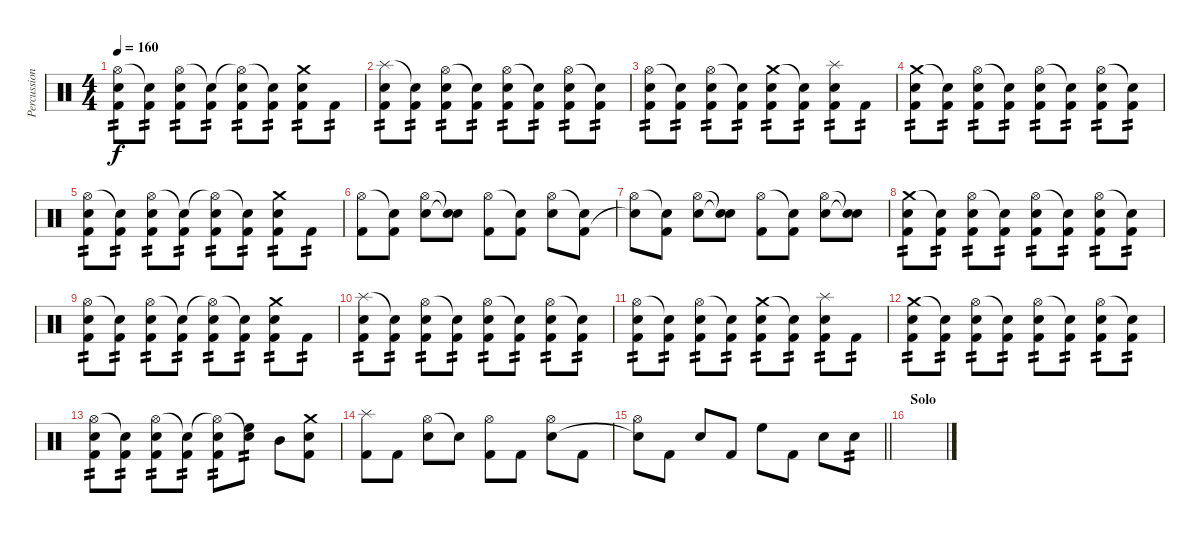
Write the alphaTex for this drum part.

\track ("Percussion" "Percussion") {instrument percussion}
\staff {score}
\articulation defaults
\ts (4 4)
\tempo 160
\clef neutral
\ks c
("Hi-Hat (open)" "Electric Snare (hit)" "Kick (hit) 2").8{tp 2 dy f} ("Snare (hit)"{t} "Kick (hit) 2").8{tp 2} ("Hi-Hat (open)" "Electric Snare (hit)" "Kick (hit) 2").8{tp 2} ("Snare (hit)"{t} "Kick (hit) 2").8{tp 2} ("Hi-Hat (open)"{t} "Electric Snare (hit)" "Kick (hit) 2").8{tp 2} ("Snare (hit)"{t} "Kick (hit) 2").8{tp 2} ("Crash medium (hit)" "Electric Snare (hit)" "Kick (hit) 2").8{tp 2} "Kick (hit) 2".8{tp 2} |
("Splash (hit)" "Electric Snare (hit)" "Kick (hit) 2").8{tp 2} ("Snare (hit)"{t} "Kick (hit) 2").8{tp 2} ("Hi-Hat (open)" "Electric Snare (hit)" "Kick (hit) 2").8{tp 2} ("Snare (hit)"{t} "Kick (hit) 2").8{tp 2} ("Hi-Hat (open)" "Electric Snare (hit)" "Kick (hit) 2").8{tp 2} ("Snare (hit)"{t} "Kick (hit) 2").8{tp 2} ("Hi-Hat (open)" "Electric Snare (hit)" "Kick (hit) 2").8{tp 2} ("Snare (hit)"{t} "Kick (hit) 2").8{tp 2} |
("Hi-Hat (open)" "Electric Snare (hit)" "Kick (hit) 2").8{tp 2} ("Snare (hit)"{t} "Kick (hit) 2").8{tp 2} ("Hi-Hat (open)" "Electric Snare (hit)" "Kick (hit) 2").8{tp 2} ("Snare (hit)"{t} "Kick (hit) 2").8{tp 2} ("Crash medium (hit)" "Electric Snare (hit)" "Kick (hit) 2").8{tp 2} ("Snare (hit)"{t} "Kick (hit) 2").8{tp 2} ("Splash (hit)" "Electric Snare (hit)" "Kick (hit) 2").8{tp 2} "Kick (hit) 2".8{tp 2} |
("Crash medium (hit)" "Electric Snare (hit)" "Kick (hit) 2").8{tp 2} ("Snare (hit)"{t} "Kick (hit) 2").8{tp 2} ("Hi-Hat (open)" "Electric Snare (hit)" "Kick (hit) 2").8{tp 2} ("Snare (hit)"{t} "Kick (hit) 2").8{tp 2} ("Hi-Hat (open)" "Electric Snare (hit)" "Kick (hit) 2").8{tp 2} ("Snare (hit)"{t} "Kick (hit) 2").8{tp 2} ("Hi-Hat (open)" "Electric Snare (hit)" "Kick (hit) 2").8{tp 2} ("Snare (hit)"{t} "Kick (hit) 2").8{tp 2} |
("Hi-Hat (open)" "Electric Snare (hit)" "Kick (hit) 2").8{tp 2} ("Snare (hit)"{t} "Kick (hit) 2").8{tp 2} ("Hi-Hat (open)" "Electric Snare (hit)" "Kick (hit) 2").8{tp 2} ("Snare (hit)"{t} "Kick (hit) 2").8{tp 2} ("Hi-Hat (open)"{t} "Electric Snare (hit)" "Kick (hit) 2").8{tp 2} ("Snare (hit)"{t} "Kick (hit) 2").8{tp 2} ("Crash medium (hit)" "Electric Snare (hit)" "Kick (hit) 2").8{tp 2} "Kick (hit) 2".8{tp 2} |
("Hi-Hat (open)" "Kick (hit) 2").8 ("Snare (hit)"{t} "Kick (hit) 2").8 ("Hi-Hat (open)" "Electric Snare (hit)").8 ("Snare (hit)"{t} "Snare (hit)"{t}).8 ("Hi-Hat (open)" "Kick (hit) 2").8 ("Snare (hit)"{t} "Kick (hit) 2").8 ("Hi-Hat (open)" "Electric Snare (hit)").8 ("Snare (hit)"{t} "Kick (hit) 2").8 |
("Hi-Hat (open)" "Snare (hit)"{t}).8 ("Snare (hit)"{t} "Kick (hit) 2").8 ("Hi-Hat (open)" "Electric Snare (hit)").8 ("Snare (hit)"{t} "Snare (hit)"{t}).8 ("Hi-Hat (open)" "Kick (hit) 2").8 ("Snare (hit)"{t} "Kick (hit) 2").8 ("Hi-Hat (open)" "Electric Snare (hit)").8 ("Snare (hit)"{t} "Electric Snare (hit)"{t}).8 |
("Crash medium (hit)" "Electric Snare (hit)" "Kick (hit) 2").8{tp 2} ("Snare (hit)"{t} "Kick (hit) 2").8{tp 2} ("Hi-Hat (open)" "Electric Snare (hit)" "Kick (hit) 2").8{tp 2} ("Snare (hit)"{t} "Kick (hit) 2").8{tp 2} ("Hi-Hat (open)" "Electric Snare (hit)" "Kick (hit) 2").8{tp 2} ("Snare (hit)"{t} "Kick (hit) 2").8{tp 2} ("Hi-Hat (open)" "Electric Snare (hit)" "Kick (hit) 2").8{tp 2} ("Snare (hit)"{t} "Kick (hit) 2").8{tp 2} |
("Hi-Hat (open)" "Electric Snare (hit)" "Kick (hit) 2").8{tp 2} ("Snare (hit)"{t} "Kick (hit) 2").8{tp 2} ("Hi-Hat (open)" "Electric Snare (hit)" "Kick (hit) 2").8{tp 2} ("Snare (hit)"{t} "Kick (hit) 2").8{tp 2} ("Hi-Hat (open)"{t} "Electric Snare (hit)" "Kick (hit) 2").8{tp 2} ("Snare (hit)"{t} "Kick (hit) 2").8{tp 2} ("Crash medium (hit)" "Electric Snare (hit)" "Kick (hit) 2").8{tp 2} "Kick (hit) 2".8{tp 2} |
("Splash (hit)" "Electric Snare (hit)" "Kick (hit) 2").8{tp 2} ("Snare (hit)"{t} "Kick (hit) 2").8{tp 2} ("Hi-Hat (open)" "Electric Snare (hit)" "Kick (hit) 2").8{tp 2} ("Snare (hit)"{t} "Kick (hit) 2").8{tp 2} ("Hi-Hat (open)" "Electric Snare (hit)" "Kick (hit) 2").8{tp 2} ("Snare (hit)"{t} "Kick (hit) 2").8{tp 2} ("Hi-Hat (open)" "Electric Snare (hit)" "Kick (hit) 2").8{tp 2} ("Snare (hit)"{t} "Kick (hit) 2").8{tp 2} |
("Hi-Hat (open)" "Electric Snare (hit)" "Kick (hit) 2").8{tp 2} ("Snare (hit)"{t} "Kick (hit) 2").8{tp 2} ("Hi-Hat (open)" "Electric Snare (hit)" "Kick (hit) 2").8{tp 2} ("Snare (hit)"{t} "Kick (hit) 2").8{tp 2} ("Crash medium (hit)" "Electric Snare (hit)" "Kick (hit) 2").8{tp 2} ("Snare (hit)"{t} "Kick (hit) 2").8{tp 2} ("Splash (hit)" "Electric Snare (hit)" "Kick (hit) 2").8{tp 2} "Kick (hit) 2".8{tp 2} |
("Crash medium (hit)" "Electric Snare (hit)" "Kick (hit) 2").8{tp 2} ("Snare (hit)"{t} "Kick (hit) 2").8{tp 2} ("Hi-Hat (open)" "Electric Snare (hit)" "Kick (hit) 2").8{tp 2} ("Snare (hit)"{t} "Kick (hit) 2").8{tp 2} ("Hi-Hat (open)" "Electric Snare (hit)" "Kick (hit) 2").8{tp 2} ("Snare (hit)"{t} "Kick (hit) 2").8{tp 2} ("Hi-Hat (open)" "Electric Snare (hit)" "Kick (hit) 2").8{tp 2} ("Snare (hit)"{t} "Kick (hit) 2").8{tp 2} |
("Hi-Hat (open)" "Electric Snare (hit)" "Kick (hit) 2").8{tp 2} ("Snare (hit)"{t} "Kick (hit) 2").8{tp 2} ("Hi-Hat (open)" "Electric Snare (hit)" "Kick (hit) 2").8{tp 2} ("Snare (hit)"{t} "Kick (hit) 2").8{tp 2} ("Hi-Hat (open)"{t} "Electric Snare (hit)" "Kick (hit) 2").8{tp 2} ("Snare (hit)"{t} "High Floor Tom (hit)").8{tp 2} "Mid Tom (hit)".8 ("Crash medium (hit)" "Electric Snare (hit)" "Kick (hit) 2").8 |
("Splash (hit)" "Kick (hit) 2").8 "Kick (hit) 2".8 ("Hi-Hat (open)" "Electric Snare (hit)").8 "Snare (hit)"{t}.8 ("Hi-Hat (open)" "Kick (hit) 2").8 "Kick (hit) 2".8 ("Hi-Hat (open)" "Electric Snare (hit)").8 "Kick (hit) 2".8 |
\barLineRight lightlight
("Hi-Hat (open)" "Snare (hit)"{t}).8 "Kick (hit) 2".8 "Electric Snare (hit)".8 "Kick (hit) 2".8 "High Floor Tom (hit)".8 "Kick (hit) 2".8 "Electric Snare (hit)".8 "Electric Snare (hit)".8{tp 2} |
\section ("" "Solo")
